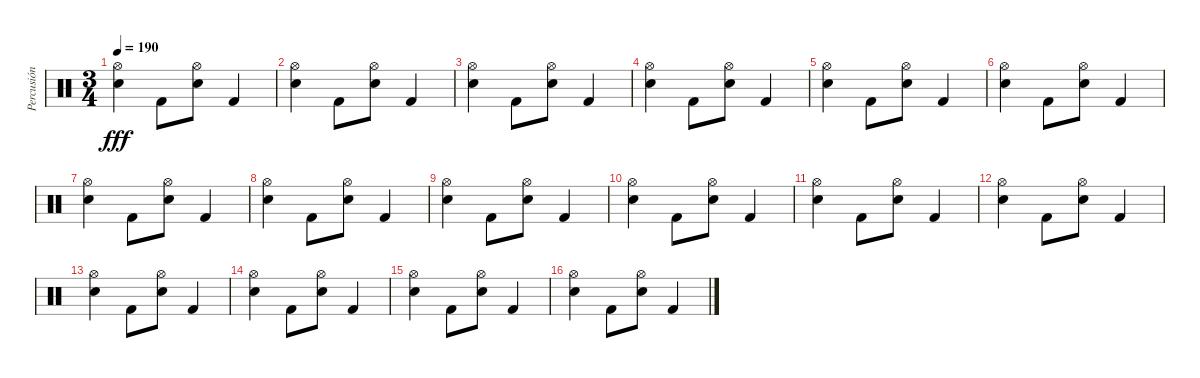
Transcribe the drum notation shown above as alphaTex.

\track ("Percusión" "Percusión") {instrument percussion}
\staff {score}
\articulation defaults
\ts (3 4)
\tempo 190
\clef neutral
\ks c
("Hi-Hat (open)" "Electric Snare (hit)").4{dy fff} "Kick (hit) 2".8 ("Hi-Hat (open)" "Electric Snare (hit)").8 "Kick (hit) 2".4 |
("Hi-Hat (open)" "Electric Snare (hit)").4 "Kick (hit) 2".8 ("Hi-Hat (open)" "Electric Snare (hit)").8 "Kick (hit) 2".4 |
("Hi-Hat (open)" "Electric Snare (hit)").4 "Kick (hit) 2".8 ("Hi-Hat (open)" "Electric Snare (hit)").8 "Kick (hit) 2".4 |
("Hi-Hat (open)" "Electric Snare (hit)").4 "Kick (hit) 2".8 ("Hi-Hat (open)" "Electric Snare (hit)").8 "Kick (hit) 2".4 |
("Hi-Hat (open)" "Electric Snare (hit)").4 "Kick (hit) 2".8 ("Hi-Hat (open)" "Electric Snare (hit)").8 "Kick (hit) 2".4 |
("Hi-Hat (open)" "Electric Snare (hit)").4 "Kick (hit) 2".8 ("Hi-Hat (open)" "Electric Snare (hit)").8 "Kick (hit) 2".4 |
("Hi-Hat (open)" "Electric Snare (hit)").4 "Kick (hit) 2".8 ("Hi-Hat (open)" "Electric Snare (hit)").8 "Kick (hit) 2".4 |
("Hi-Hat (open)" "Electric Snare (hit)").4 "Kick (hit) 2".8 ("Hi-Hat (open)" "Electric Snare (hit)").8 "Kick (hit) 2".4 |
("Hi-Hat (open)" "Electric Snare (hit)").4 "Kick (hit) 2".8 ("Hi-Hat (open)" "Electric Snare (hit)").8 "Kick (hit) 2".4 |
("Hi-Hat (open)" "Electric Snare (hit)").4 "Kick (hit) 2".8 ("Hi-Hat (open)" "Electric Snare (hit)").8 "Kick (hit) 2".4 |
("Hi-Hat (open)" "Electric Snare (hit)").4 "Kick (hit) 2".8 ("Hi-Hat (open)" "Electric Snare (hit)").8 "Kick (hit) 2".4 |
("Hi-Hat (open)" "Electric Snare (hit)").4 "Kick (hit) 2".8 ("Hi-Hat (open)" "Electric Snare (hit)").8 "Kick (hit) 2".4 |
("Hi-Hat (open)" "Electric Snare (hit)").4 "Kick (hit) 2".8 ("Hi-Hat (open)" "Electric Snare (hit)").8 "Kick (hit) 2".4 |
("Hi-Hat (open)" "Electric Snare (hit)").4 "Kick (hit) 2".8 ("Hi-Hat (open)" "Electric Snare (hit)").8 "Kick (hit) 2".4 |
("Hi-Hat (open)" "Electric Snare (hit)").4 "Kick (hit) 2".8 ("Hi-Hat (open)" "Electric Snare (hit)").8 "Kick (hit) 2".4 |
("Hi-Hat (open)" "Electric Snare (hit)").4 "Kick (hit) 2".8 ("Hi-Hat (open)" "Electric Snare (hit)").8 "Kick (hit) 2".4
